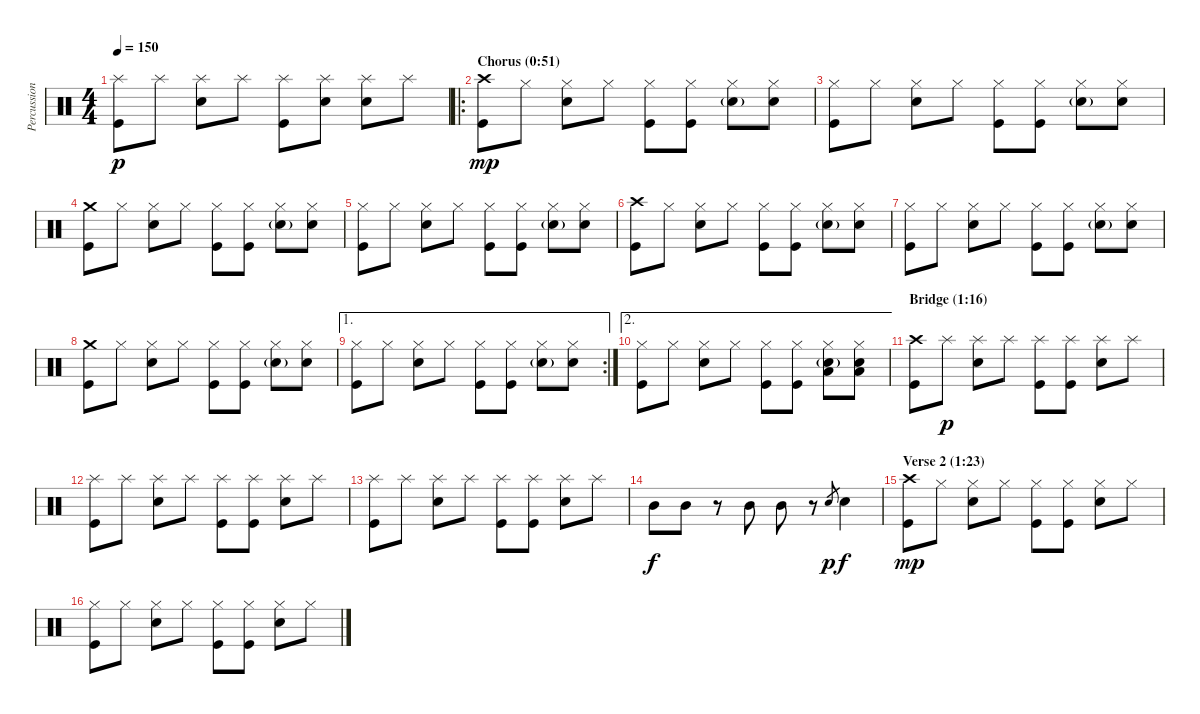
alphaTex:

\track ("Percussion" "Percussion") {instrument percussion}
\staff {score}
\articulation defaults
\ts (4 4)
\tempo 150
\clef neutral
\ks c
("Splash (hit)" "Kick (hit)").8{dy p} "Splash (hit)".8 ("Splash (hit)" "Electric Snare (hit)").8 "Splash (hit)".8 ("Splash (hit)" "Kick (hit)").8 ("Splash (hit)" "Electric Snare (hit)").8 ("Splash (hit)" "Electric Snare (hit)").8 "Splash (hit)".8 |
\ro
\section ("" "Chorus (0:51)")
("Crash high (hit)" "Kick (hit)").8{dy mp} "Hi-Hat (closed)".8 ("Hi-Hat (closed)" "Electric Snare (hit)").8 "Hi-Hat (closed)".8 ("Hi-Hat (closed)" "Kick (hit)").8 ("Hi-Hat (closed)" "Kick (hit)").8 ("Hi-Hat (closed)" "Electric Snare (hit)"{g}).8 ("Hi-Hat (closed)" "Electric Snare (hit)").8 |
("Hi-Hat (closed)" "Kick (hit)").8 "Hi-Hat (closed)".8 ("Hi-Hat (closed)" "Electric Snare (hit)").8 "Hi-Hat (closed)".8 ("Hi-Hat (closed)" "Kick (hit)").8 ("Hi-Hat (closed)" "Kick (hit)").8 ("Hi-Hat (closed)" "Electric Snare (hit)"{g}).8 ("Hi-Hat (closed)" "Electric Snare (hit)").8 |
("Crash medium (hit)" "Kick (hit)").8 "Hi-Hat (closed)".8 ("Hi-Hat (closed)" "Electric Snare (hit)").8 "Hi-Hat (closed)".8 ("Hi-Hat (closed)" "Kick (hit)").8 ("Hi-Hat (closed)" "Kick (hit)").8 ("Hi-Hat (closed)" "Electric Snare (hit)"{g}).8 ("Hi-Hat (closed)" "Electric Snare (hit)").8 |
("Hi-Hat (closed)" "Kick (hit)").8 "Hi-Hat (closed)".8 ("Hi-Hat (closed)" "Electric Snare (hit)").8 "Hi-Hat (closed)".8 ("Hi-Hat (closed)" "Kick (hit)").8 ("Hi-Hat (closed)" "Kick (hit)").8 ("Hi-Hat (closed)" "Electric Snare (hit)"{g}).8 ("Hi-Hat (closed)" "Electric Snare (hit)").8 |
("Crash high (hit)" "Kick (hit)").8 "Hi-Hat (closed)".8 ("Hi-Hat (closed)" "Electric Snare (hit)").8 "Hi-Hat (closed)".8 ("Hi-Hat (closed)" "Kick (hit)").8 ("Hi-Hat (closed)" "Kick (hit)").8 ("Hi-Hat (closed)" "Electric Snare (hit)"{g}).8 ("Hi-Hat (closed)" "Electric Snare (hit)").8 |
("Hi-Hat (closed)" "Kick (hit)").8 "Hi-Hat (closed)".8 ("Hi-Hat (closed)" "Electric Snare (hit)").8 "Hi-Hat (closed)".8 ("Hi-Hat (closed)" "Kick (hit)").8 ("Hi-Hat (closed)" "Kick (hit)").8 ("Hi-Hat (closed)" "Electric Snare (hit)"{g}).8 ("Hi-Hat (closed)" "Electric Snare (hit)").8 |
("Crash medium (hit)" "Kick (hit)").8 "Hi-Hat (closed)".8 ("Hi-Hat (closed)" "Electric Snare (hit)").8 "Hi-Hat (closed)".8 ("Hi-Hat (closed)" "Kick (hit)").8 ("Hi-Hat (closed)" "Kick (hit)").8 ("Hi-Hat (closed)" "Electric Snare (hit)"{g}).8 ("Hi-Hat (closed)" "Electric Snare (hit)").8 |
\ae 1
\rc 2
("Hi-Hat (closed)" "Kick (hit)").8 "Hi-Hat (closed)".8 ("Hi-Hat (closed)" "Electric Snare (hit)").8 "Hi-Hat (closed)".8 ("Hi-Hat (closed)" "Kick (hit)").8 ("Hi-Hat (closed)" "Kick (hit)").8 ("Hi-Hat (closed)" "Electric Snare (hit)"{g}).8 ("Hi-Hat (closed)" "Electric Snare (hit)").8 |
\ae 2
("Hi-Hat (closed)" "Kick (hit)").8 "Hi-Hat (closed)".8 ("Hi-Hat (closed)" "Electric Snare (hit)").8 "Hi-Hat (closed)".8 ("Hi-Hat (closed)" "Kick (hit)").8 ("Hi-Hat (closed)" "Kick (hit)").8 ("Hi-Hat (closed)" "Low Tom (hit)" "Electric Snare (hit)"{g}).8 ("Hi-Hat (closed)" "Low Tom (hit)" "Electric Snare (hit)").8 |
\section ("" "Bridge (1:16)")
("Crash high (hit)" "Kick (hit)").8 "Splash (hit)".8{dy p} ("Splash (hit)" "Electric Snare (hit)").8 "Splash (hit)".8 ("Splash (hit)" "Kick (hit)").8 ("Splash (hit)" "Kick (hit)").8 ("Splash (hit)" "Electric Snare (hit)").8 "Splash (hit)".8 |
("Splash (hit)" "Kick (hit)").8 "Splash (hit)".8 ("Splash (hit)" "Electric Snare (hit)").8 "Splash (hit)".8 ("Splash (hit)" "Kick (hit)").8 ("Splash (hit)" "Kick (hit)").8 ("Splash (hit)" "Electric Snare (hit)").8 "Splash (hit)".8 |
("Splash (hit)" "Kick (hit)").8 "Splash (hit)".8 ("Splash (hit)" "Electric Snare (hit)").8 "Splash (hit)".8 ("Splash (hit)" "Kick (hit)").8 ("Splash (hit)" "Kick (hit)").8 ("Splash (hit)" "Electric Snare (hit)").8 "Splash (hit)".8 |
"Mid Tom (hit)".8{dy f} "Mid Tom (hit)".8 r.8 "Mid Tom (hit)".8 "Mid Tom (hit)".8 r.8 "Electric Snare (hit)".8{gr dy p} "Electric Snare (hit)".4{dy f} |
\section ("" "Verse 2 (1:23)")
("Crash high (hit)" "Kick (hit)").8{dy mp} "Hi-Hat (closed)".8 ("Hi-Hat (closed)" "Electric Snare (hit)").8 "Hi-Hat (closed)".8 ("Hi-Hat (closed)" "Kick (hit)").8 ("Hi-Hat (closed)" "Kick (hit)").8 ("Hi-Hat (closed)" "Electric Snare (hit)").8 "Hi-Hat (closed)".8 |
("Hi-Hat (closed)" "Kick (hit)").8 "Hi-Hat (closed)".8 ("Hi-Hat (closed)" "Electric Snare (hit)").8 "Hi-Hat (closed)".8 ("Hi-Hat (closed)" "Kick (hit)").8 ("Hi-Hat (closed)" "Kick (hit)").8 ("Hi-Hat (closed)" "Electric Snare (hit)").8 "Hi-Hat (closed)".8
